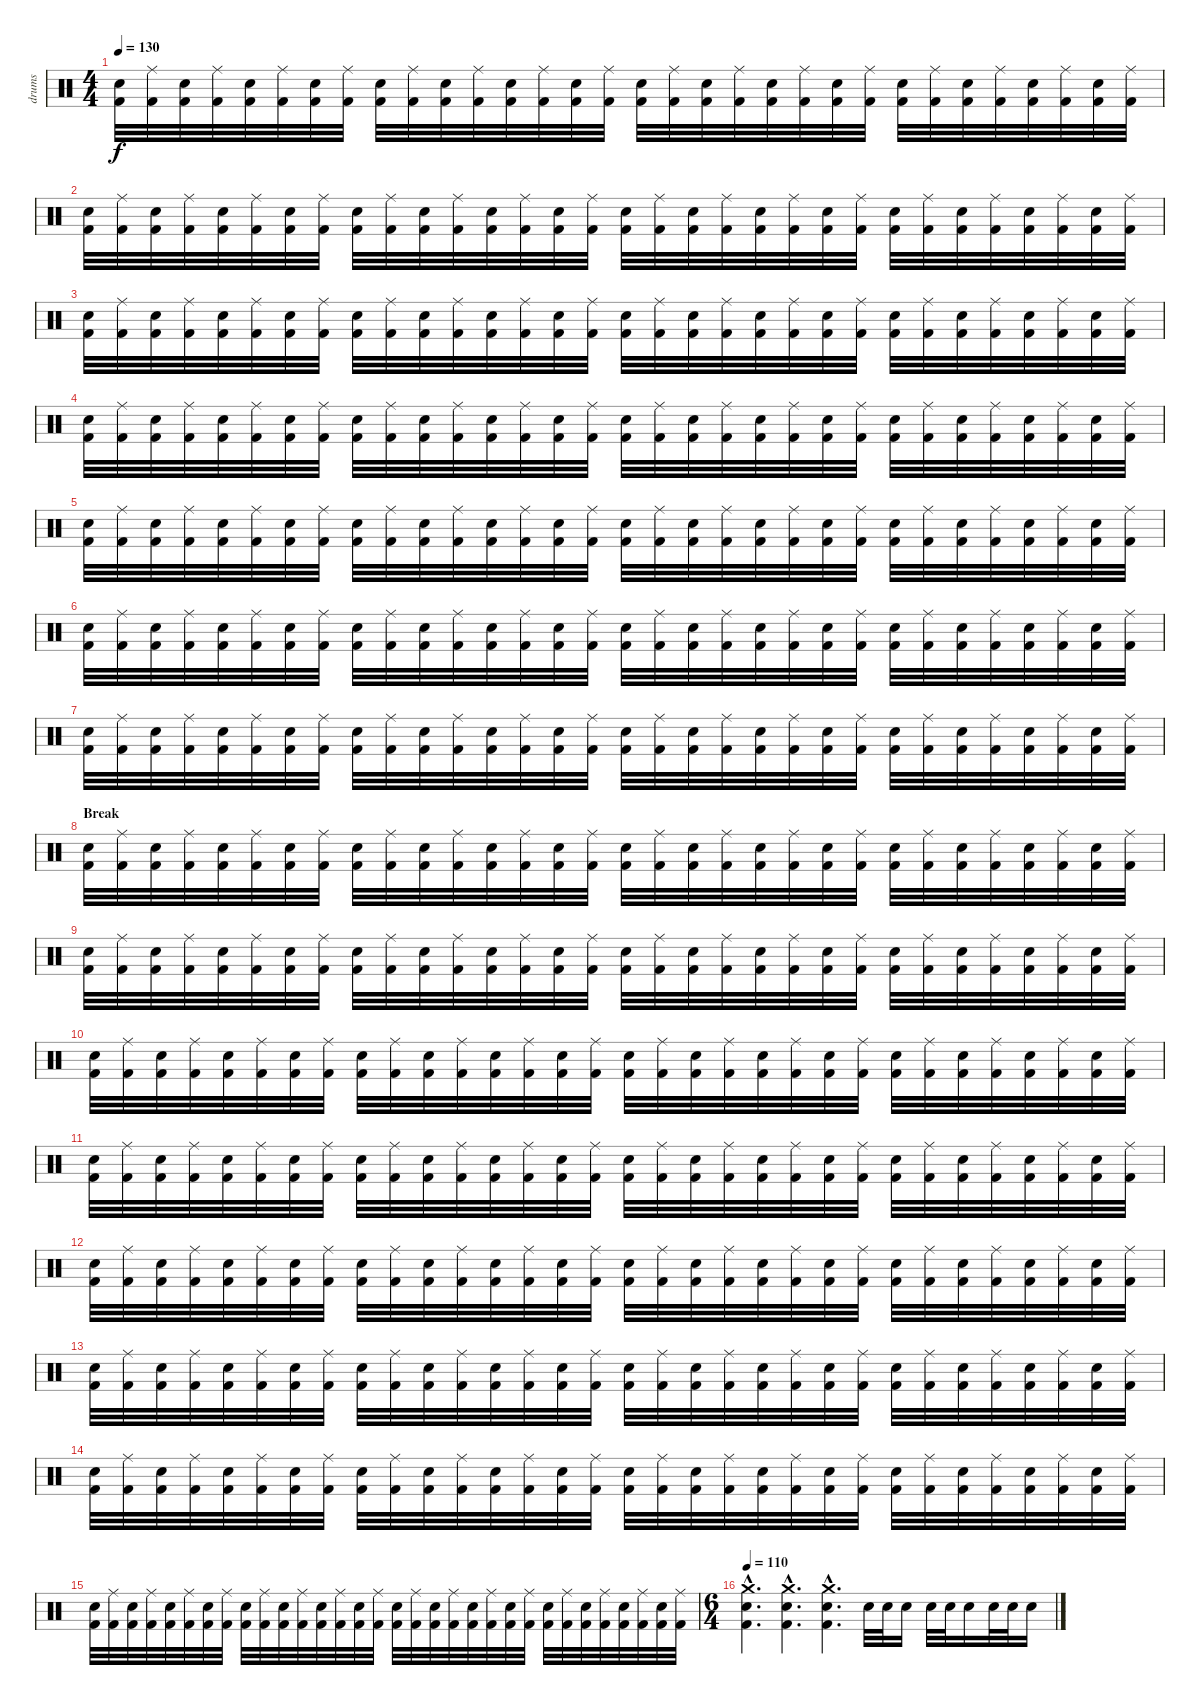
\track ("drums" "drums") {instrument percussion}
\staff {score}
\articulation defaults
\ts (4 4)
\tempo 130
\clef neutral
\ks c
("Electric Snare (hit)" "Kick (hit) 2").32{dy f} ("Ride (middle)" "Kick (hit) 2").32 ("Electric Snare (hit)" "Kick (hit) 2").32 ("Ride (middle)" "Kick (hit) 2").32 ("Electric Snare (hit)" "Kick (hit) 2").32 ("Ride (middle)" "Kick (hit) 2").32 ("Electric Snare (hit)" "Kick (hit) 2").32 ("Ride (middle)" "Kick (hit) 2").32 ("Electric Snare (hit)" "Kick (hit) 2").32 ("Ride (middle)" "Kick (hit) 2").32 ("Electric Snare (hit)" "Kick (hit) 2").32 ("Ride (middle)" "Kick (hit) 2").32 ("Electric Snare (hit)" "Kick (hit) 2").32 ("Ride (middle)" "Kick (hit) 2").32 ("Electric Snare (hit)" "Kick (hit) 2").32 ("Ride (middle)" "Kick (hit) 2").32 ("Electric Snare (hit)" "Kick (hit) 2").32 ("Ride (middle)" "Kick (hit) 2").32 ("Electric Snare (hit)" "Kick (hit) 2").32 ("Ride (middle)" "Kick (hit) 2").32 ("Electric Snare (hit)" "Kick (hit) 2").32 ("Ride (middle)" "Kick (hit) 2").32 ("Electric Snare (hit)" "Kick (hit) 2").32 ("Ride (middle)" "Kick (hit) 2").32 ("Electric Snare (hit)" "Kick (hit) 2").32 ("Ride (middle)" "Kick (hit) 2").32 ("Electric Snare (hit)" "Kick (hit) 2").32 ("Ride (middle)" "Kick (hit) 2").32 ("Electric Snare (hit)" "Kick (hit) 2").32 ("Ride (middle)" "Kick (hit) 2").32 ("Electric Snare (hit)" "Kick (hit) 2").32 ("Ride (middle)" "Kick (hit) 2").32 |
("Electric Snare (hit)" "Kick (hit) 2").32 ("Ride (middle)" "Kick (hit) 2").32 ("Electric Snare (hit)" "Kick (hit) 2").32 ("Ride (middle)" "Kick (hit) 2").32 ("Electric Snare (hit)" "Kick (hit) 2").32 ("Ride (middle)" "Kick (hit) 2").32 ("Electric Snare (hit)" "Kick (hit) 2").32 ("Ride (middle)" "Kick (hit) 2").32 ("Electric Snare (hit)" "Kick (hit) 2").32 ("Ride (middle)" "Kick (hit) 2").32 ("Electric Snare (hit)" "Kick (hit) 2").32 ("Ride (middle)" "Kick (hit) 2").32 ("Electric Snare (hit)" "Kick (hit) 2").32 ("Ride (middle)" "Kick (hit) 2").32 ("Electric Snare (hit)" "Kick (hit) 2").32 ("Ride (middle)" "Kick (hit) 2").32 ("Electric Snare (hit)" "Kick (hit) 2").32 ("Ride (middle)" "Kick (hit) 2").32 ("Electric Snare (hit)" "Kick (hit) 2").32 ("Ride (middle)" "Kick (hit) 2").32 ("Electric Snare (hit)" "Kick (hit) 2").32 ("Ride (middle)" "Kick (hit) 2").32 ("Electric Snare (hit)" "Kick (hit) 2").32 ("Ride (middle)" "Kick (hit) 2").32 ("Electric Snare (hit)" "Kick (hit) 2").32 ("Ride (middle)" "Kick (hit) 2").32 ("Electric Snare (hit)" "Kick (hit) 2").32 ("Ride (middle)" "Kick (hit) 2").32 ("Electric Snare (hit)" "Kick (hit) 2").32 ("Ride (middle)" "Kick (hit) 2").32 ("Electric Snare (hit)" "Kick (hit) 2").32 ("Ride (middle)" "Kick (hit) 2").32 |
("Electric Snare (hit)" "Kick (hit) 2").32 ("Ride (middle)" "Kick (hit) 2").32 ("Electric Snare (hit)" "Kick (hit) 2").32 ("Ride (middle)" "Kick (hit) 2").32 ("Electric Snare (hit)" "Kick (hit) 2").32 ("Ride (middle)" "Kick (hit) 2").32 ("Electric Snare (hit)" "Kick (hit) 2").32 ("Ride (middle)" "Kick (hit) 2").32 ("Electric Snare (hit)" "Kick (hit) 2").32 ("Ride (middle)" "Kick (hit) 2").32 ("Electric Snare (hit)" "Kick (hit) 2").32 ("Ride (middle)" "Kick (hit) 2").32 ("Electric Snare (hit)" "Kick (hit) 2").32 ("Ride (middle)" "Kick (hit) 2").32 ("Electric Snare (hit)" "Kick (hit) 2").32 ("Ride (middle)" "Kick (hit) 2").32 ("Electric Snare (hit)" "Kick (hit) 2").32 ("Ride (middle)" "Kick (hit) 2").32 ("Electric Snare (hit)" "Kick (hit) 2").32 ("Ride (middle)" "Kick (hit) 2").32 ("Electric Snare (hit)" "Kick (hit) 2").32 ("Ride (middle)" "Kick (hit) 2").32 ("Electric Snare (hit)" "Kick (hit) 2").32 ("Ride (middle)" "Kick (hit) 2").32 ("Electric Snare (hit)" "Kick (hit) 2").32 ("Ride (middle)" "Kick (hit) 2").32 ("Electric Snare (hit)" "Kick (hit) 2").32 ("Ride (middle)" "Kick (hit) 2").32 ("Electric Snare (hit)" "Kick (hit) 2").32 ("Ride (middle)" "Kick (hit) 2").32 ("Electric Snare (hit)" "Kick (hit) 2").32 ("Ride (middle)" "Kick (hit) 2").32 |
("Electric Snare (hit)" "Kick (hit) 2").32 ("Ride (middle)" "Kick (hit) 2").32 ("Electric Snare (hit)" "Kick (hit) 2").32 ("Ride (middle)" "Kick (hit) 2").32 ("Electric Snare (hit)" "Kick (hit) 2").32 ("Ride (middle)" "Kick (hit) 2").32 ("Electric Snare (hit)" "Kick (hit) 2").32 ("Ride (middle)" "Kick (hit) 2").32 ("Electric Snare (hit)" "Kick (hit) 2").32 ("Ride (middle)" "Kick (hit) 2").32 ("Electric Snare (hit)" "Kick (hit) 2").32 ("Ride (middle)" "Kick (hit) 2").32 ("Electric Snare (hit)" "Kick (hit) 2").32 ("Ride (middle)" "Kick (hit) 2").32 ("Electric Snare (hit)" "Kick (hit) 2").32 ("Ride (middle)" "Kick (hit) 2").32 ("Electric Snare (hit)" "Kick (hit) 2").32 ("Ride (middle)" "Kick (hit) 2").32 ("Electric Snare (hit)" "Kick (hit) 2").32 ("Ride (middle)" "Kick (hit) 2").32 ("Electric Snare (hit)" "Kick (hit) 2").32 ("Ride (middle)" "Kick (hit) 2").32 ("Electric Snare (hit)" "Kick (hit) 2").32 ("Ride (middle)" "Kick (hit) 2").32 ("Electric Snare (hit)" "Kick (hit) 2").32 ("Ride (middle)" "Kick (hit) 2").32 ("Electric Snare (hit)" "Kick (hit) 2").32 ("Ride (middle)" "Kick (hit) 2").32 ("Electric Snare (hit)" "Kick (hit) 2").32 ("Ride (middle)" "Kick (hit) 2").32 ("Electric Snare (hit)" "Kick (hit) 2").32 ("Ride (middle)" "Kick (hit) 2").32 |
("Electric Snare (hit)" "Kick (hit) 2").32 ("Ride (middle)" "Kick (hit) 2").32 ("Electric Snare (hit)" "Kick (hit) 2").32 ("Ride (middle)" "Kick (hit) 2").32 ("Electric Snare (hit)" "Kick (hit) 2").32 ("Ride (middle)" "Kick (hit) 2").32 ("Electric Snare (hit)" "Kick (hit) 2").32 ("Ride (middle)" "Kick (hit) 2").32 ("Electric Snare (hit)" "Kick (hit) 2").32 ("Ride (middle)" "Kick (hit) 2").32 ("Electric Snare (hit)" "Kick (hit) 2").32 ("Ride (middle)" "Kick (hit) 2").32 ("Electric Snare (hit)" "Kick (hit) 2").32 ("Ride (middle)" "Kick (hit) 2").32 ("Electric Snare (hit)" "Kick (hit) 2").32 ("Ride (middle)" "Kick (hit) 2").32 ("Electric Snare (hit)" "Kick (hit) 2").32 ("Ride (middle)" "Kick (hit) 2").32 ("Electric Snare (hit)" "Kick (hit) 2").32 ("Ride (middle)" "Kick (hit) 2").32 ("Electric Snare (hit)" "Kick (hit) 2").32 ("Ride (middle)" "Kick (hit) 2").32 ("Electric Snare (hit)" "Kick (hit) 2").32 ("Ride (middle)" "Kick (hit) 2").32 ("Electric Snare (hit)" "Kick (hit) 2").32 ("Ride (middle)" "Kick (hit) 2").32 ("Electric Snare (hit)" "Kick (hit) 2").32 ("Ride (middle)" "Kick (hit) 2").32 ("Electric Snare (hit)" "Kick (hit) 2").32 ("Ride (middle)" "Kick (hit) 2").32 ("Electric Snare (hit)" "Kick (hit) 2").32 ("Ride (middle)" "Kick (hit) 2").32 |
("Electric Snare (hit)" "Kick (hit) 2").32 ("Ride (middle)" "Kick (hit) 2").32 ("Electric Snare (hit)" "Kick (hit) 2").32 ("Ride (middle)" "Kick (hit) 2").32 ("Electric Snare (hit)" "Kick (hit) 2").32 ("Ride (middle)" "Kick (hit) 2").32 ("Electric Snare (hit)" "Kick (hit) 2").32 ("Ride (middle)" "Kick (hit) 2").32 ("Electric Snare (hit)" "Kick (hit) 2").32 ("Ride (middle)" "Kick (hit) 2").32 ("Electric Snare (hit)" "Kick (hit) 2").32 ("Ride (middle)" "Kick (hit) 2").32 ("Electric Snare (hit)" "Kick (hit) 2").32 ("Ride (middle)" "Kick (hit) 2").32 ("Electric Snare (hit)" "Kick (hit) 2").32 ("Ride (middle)" "Kick (hit) 2").32 ("Electric Snare (hit)" "Kick (hit) 2").32 ("Ride (middle)" "Kick (hit) 2").32 ("Electric Snare (hit)" "Kick (hit) 2").32 ("Ride (middle)" "Kick (hit) 2").32 ("Electric Snare (hit)" "Kick (hit) 2").32 ("Ride (middle)" "Kick (hit) 2").32 ("Electric Snare (hit)" "Kick (hit) 2").32 ("Ride (middle)" "Kick (hit) 2").32 ("Electric Snare (hit)" "Kick (hit) 2").32 ("Ride (middle)" "Kick (hit) 2").32 ("Electric Snare (hit)" "Kick (hit) 2").32 ("Ride (middle)" "Kick (hit) 2").32 ("Electric Snare (hit)" "Kick (hit) 2").32 ("Ride (middle)" "Kick (hit) 2").32 ("Electric Snare (hit)" "Kick (hit) 2").32 ("Ride (middle)" "Kick (hit) 2").32 |
("Electric Snare (hit)" "Kick (hit) 2").32 ("Ride (middle)" "Kick (hit) 2").32 ("Electric Snare (hit)" "Kick (hit) 2").32 ("Ride (middle)" "Kick (hit) 2").32 ("Electric Snare (hit)" "Kick (hit) 2").32 ("Ride (middle)" "Kick (hit) 2").32 ("Electric Snare (hit)" "Kick (hit) 2").32 ("Ride (middle)" "Kick (hit) 2").32 ("Electric Snare (hit)" "Kick (hit) 2").32 ("Ride (middle)" "Kick (hit) 2").32 ("Electric Snare (hit)" "Kick (hit) 2").32 ("Ride (middle)" "Kick (hit) 2").32 ("Electric Snare (hit)" "Kick (hit) 2").32 ("Ride (middle)" "Kick (hit) 2").32 ("Electric Snare (hit)" "Kick (hit) 2").32 ("Ride (middle)" "Kick (hit) 2").32 ("Electric Snare (hit)" "Kick (hit) 2").32 ("Ride (middle)" "Kick (hit) 2").32 ("Electric Snare (hit)" "Kick (hit) 2").32 ("Ride (middle)" "Kick (hit) 2").32 ("Electric Snare (hit)" "Kick (hit) 2").32 ("Ride (middle)" "Kick (hit) 2").32 ("Electric Snare (hit)" "Kick (hit) 2").32 ("Ride (middle)" "Kick (hit) 2").32 ("Electric Snare (hit)" "Kick (hit) 2").32 ("Ride (middle)" "Kick (hit) 2").32 ("Electric Snare (hit)" "Kick (hit) 2").32 ("Ride (middle)" "Kick (hit) 2").32 ("Electric Snare (hit)" "Kick (hit) 2").32 ("Ride (middle)" "Kick (hit) 2").32 ("Electric Snare (hit)" "Kick (hit) 2").32 ("Ride (middle)" "Kick (hit) 2").32 |
\section ("" "Break")
("Electric Snare (hit)" "Kick (hit) 2").32 ("Ride (middle)" "Kick (hit) 2").32 ("Electric Snare (hit)" "Kick (hit) 2").32 ("Ride (middle)" "Kick (hit) 2").32 ("Electric Snare (hit)" "Kick (hit) 2").32 ("Ride (middle)" "Kick (hit) 2").32 ("Electric Snare (hit)" "Kick (hit) 2").32 ("Ride (middle)" "Kick (hit) 2").32 ("Electric Snare (hit)" "Kick (hit) 2").32 ("Ride (middle)" "Kick (hit) 2").32 ("Electric Snare (hit)" "Kick (hit) 2").32 ("Ride (middle)" "Kick (hit) 2").32 ("Electric Snare (hit)" "Kick (hit) 2").32 ("Ride (middle)" "Kick (hit) 2").32 ("Electric Snare (hit)" "Kick (hit) 2").32 ("Ride (middle)" "Kick (hit) 2").32 ("Electric Snare (hit)" "Kick (hit) 2").32 ("Ride (middle)" "Kick (hit) 2").32 ("Electric Snare (hit)" "Kick (hit) 2").32 ("Ride (middle)" "Kick (hit) 2").32 ("Electric Snare (hit)" "Kick (hit) 2").32 ("Ride (middle)" "Kick (hit) 2").32 ("Electric Snare (hit)" "Kick (hit) 2").32 ("Ride (middle)" "Kick (hit) 2").32 ("Electric Snare (hit)" "Kick (hit) 2").32 ("Ride (middle)" "Kick (hit) 2").32 ("Electric Snare (hit)" "Kick (hit) 2").32 ("Ride (middle)" "Kick (hit) 2").32 ("Electric Snare (hit)" "Kick (hit) 2").32 ("Ride (middle)" "Kick (hit) 2").32 ("Electric Snare (hit)" "Kick (hit) 2").32 ("Ride (middle)" "Kick (hit) 2").32 |
("Electric Snare (hit)" "Kick (hit) 2").32 ("Ride (middle)" "Kick (hit) 2").32 ("Electric Snare (hit)" "Kick (hit) 2").32 ("Ride (middle)" "Kick (hit) 2").32 ("Electric Snare (hit)" "Kick (hit) 2").32 ("Ride (middle)" "Kick (hit) 2").32 ("Electric Snare (hit)" "Kick (hit) 2").32 ("Ride (middle)" "Kick (hit) 2").32 ("Electric Snare (hit)" "Kick (hit) 2").32 ("Ride (middle)" "Kick (hit) 2").32 ("Electric Snare (hit)" "Kick (hit) 2").32 ("Ride (middle)" "Kick (hit) 2").32 ("Electric Snare (hit)" "Kick (hit) 2").32 ("Ride (middle)" "Kick (hit) 2").32 ("Electric Snare (hit)" "Kick (hit) 2").32 ("Ride (middle)" "Kick (hit) 2").32 ("Electric Snare (hit)" "Kick (hit) 2").32 ("Ride (middle)" "Kick (hit) 2").32 ("Electric Snare (hit)" "Kick (hit) 2").32 ("Ride (middle)" "Kick (hit) 2").32 ("Electric Snare (hit)" "Kick (hit) 2").32 ("Ride (middle)" "Kick (hit) 2").32 ("Electric Snare (hit)" "Kick (hit) 2").32 ("Ride (middle)" "Kick (hit) 2").32 ("Electric Snare (hit)" "Kick (hit) 2").32 ("Ride (middle)" "Kick (hit) 2").32 ("Electric Snare (hit)" "Kick (hit) 2").32 ("Ride (middle)" "Kick (hit) 2").32 ("Electric Snare (hit)" "Kick (hit) 2").32 ("Ride (middle)" "Kick (hit) 2").32 ("Electric Snare (hit)" "Kick (hit) 2").32 ("Ride (middle)" "Kick (hit) 2").32 |
("Electric Snare (hit)" "Kick (hit) 2").32 ("Ride (middle)" "Kick (hit) 2").32 ("Electric Snare (hit)" "Kick (hit) 2").32 ("Ride (middle)" "Kick (hit) 2").32 ("Electric Snare (hit)" "Kick (hit) 2").32 ("Ride (middle)" "Kick (hit) 2").32 ("Electric Snare (hit)" "Kick (hit) 2").32 ("Ride (middle)" "Kick (hit) 2").32 ("Electric Snare (hit)" "Kick (hit) 2").32 ("Ride (middle)" "Kick (hit) 2").32 ("Electric Snare (hit)" "Kick (hit) 2").32 ("Ride (middle)" "Kick (hit) 2").32 ("Electric Snare (hit)" "Kick (hit) 2").32 ("Ride (middle)" "Kick (hit) 2").32 ("Electric Snare (hit)" "Kick (hit) 2").32 ("Ride (middle)" "Kick (hit) 2").32 ("Electric Snare (hit)" "Kick (hit) 2").32 ("Ride (middle)" "Kick (hit) 2").32 ("Electric Snare (hit)" "Kick (hit) 2").32 ("Ride (middle)" "Kick (hit) 2").32 ("Electric Snare (hit)" "Kick (hit) 2").32 ("Ride (middle)" "Kick (hit) 2").32 ("Electric Snare (hit)" "Kick (hit) 2").32 ("Ride (middle)" "Kick (hit) 2").32 ("Electric Snare (hit)" "Kick (hit) 2").32 ("Ride (middle)" "Kick (hit) 2").32 ("Electric Snare (hit)" "Kick (hit) 2").32 ("Ride (middle)" "Kick (hit) 2").32 ("Electric Snare (hit)" "Kick (hit) 2").32 ("Ride (middle)" "Kick (hit) 2").32 ("Electric Snare (hit)" "Kick (hit) 2").32 ("Ride (middle)" "Kick (hit) 2").32 |
("Electric Snare (hit)" "Kick (hit) 2").32 ("Ride (middle)" "Kick (hit) 2").32 ("Electric Snare (hit)" "Kick (hit) 2").32 ("Ride (middle)" "Kick (hit) 2").32 ("Electric Snare (hit)" "Kick (hit) 2").32 ("Ride (middle)" "Kick (hit) 2").32 ("Electric Snare (hit)" "Kick (hit) 2").32 ("Ride (middle)" "Kick (hit) 2").32 ("Electric Snare (hit)" "Kick (hit) 2").32 ("Ride (middle)" "Kick (hit) 2").32 ("Electric Snare (hit)" "Kick (hit) 2").32 ("Ride (middle)" "Kick (hit) 2").32 ("Electric Snare (hit)" "Kick (hit) 2").32 ("Ride (middle)" "Kick (hit) 2").32 ("Electric Snare (hit)" "Kick (hit) 2").32 ("Ride (middle)" "Kick (hit) 2").32 ("Electric Snare (hit)" "Kick (hit) 2").32 ("Ride (middle)" "Kick (hit) 2").32 ("Electric Snare (hit)" "Kick (hit) 2").32 ("Ride (middle)" "Kick (hit) 2").32 ("Electric Snare (hit)" "Kick (hit) 2").32 ("Ride (middle)" "Kick (hit) 2").32 ("Electric Snare (hit)" "Kick (hit) 2").32 ("Ride (middle)" "Kick (hit) 2").32 ("Electric Snare (hit)" "Kick (hit) 2").32 ("Ride (middle)" "Kick (hit) 2").32 ("Electric Snare (hit)" "Kick (hit) 2").32 ("Ride (middle)" "Kick (hit) 2").32 ("Electric Snare (hit)" "Kick (hit) 2").32 ("Ride (middle)" "Kick (hit) 2").32 ("Electric Snare (hit)" "Kick (hit) 2").32 ("Ride (middle)" "Kick (hit) 2").32 |
("Electric Snare (hit)" "Kick (hit) 2").32 ("Ride (middle)" "Kick (hit) 2").32 ("Electric Snare (hit)" "Kick (hit) 2").32 ("Ride (middle)" "Kick (hit) 2").32 ("Electric Snare (hit)" "Kick (hit) 2").32 ("Ride (middle)" "Kick (hit) 2").32 ("Electric Snare (hit)" "Kick (hit) 2").32 ("Ride (middle)" "Kick (hit) 2").32 ("Electric Snare (hit)" "Kick (hit) 2").32 ("Ride (middle)" "Kick (hit) 2").32 ("Electric Snare (hit)" "Kick (hit) 2").32 ("Ride (middle)" "Kick (hit) 2").32 ("Electric Snare (hit)" "Kick (hit) 2").32 ("Ride (middle)" "Kick (hit) 2").32 ("Electric Snare (hit)" "Kick (hit) 2").32 ("Ride (middle)" "Kick (hit) 2").32 ("Electric Snare (hit)" "Kick (hit) 2").32 ("Ride (middle)" "Kick (hit) 2").32 ("Electric Snare (hit)" "Kick (hit) 2").32 ("Ride (middle)" "Kick (hit) 2").32 ("Electric Snare (hit)" "Kick (hit) 2").32 ("Ride (middle)" "Kick (hit) 2").32 ("Electric Snare (hit)" "Kick (hit) 2").32 ("Ride (middle)" "Kick (hit) 2").32 ("Electric Snare (hit)" "Kick (hit) 2").32 ("Ride (middle)" "Kick (hit) 2").32 ("Electric Snare (hit)" "Kick (hit) 2").32 ("Ride (middle)" "Kick (hit) 2").32 ("Electric Snare (hit)" "Kick (hit) 2").32 ("Ride (middle)" "Kick (hit) 2").32 ("Electric Snare (hit)" "Kick (hit) 2").32 ("Ride (middle)" "Kick (hit) 2").32 |
("Electric Snare (hit)" "Kick (hit) 2").32 ("Ride (middle)" "Kick (hit) 2").32 ("Electric Snare (hit)" "Kick (hit) 2").32 ("Ride (middle)" "Kick (hit) 2").32 ("Electric Snare (hit)" "Kick (hit) 2").32 ("Ride (middle)" "Kick (hit) 2").32 ("Electric Snare (hit)" "Kick (hit) 2").32 ("Ride (middle)" "Kick (hit) 2").32 ("Electric Snare (hit)" "Kick (hit) 2").32 ("Ride (middle)" "Kick (hit) 2").32 ("Electric Snare (hit)" "Kick (hit) 2").32 ("Ride (middle)" "Kick (hit) 2").32 ("Electric Snare (hit)" "Kick (hit) 2").32 ("Ride (middle)" "Kick (hit) 2").32 ("Electric Snare (hit)" "Kick (hit) 2").32 ("Ride (middle)" "Kick (hit) 2").32 ("Electric Snare (hit)" "Kick (hit) 2").32 ("Ride (middle)" "Kick (hit) 2").32 ("Electric Snare (hit)" "Kick (hit) 2").32 ("Ride (middle)" "Kick (hit) 2").32 ("Electric Snare (hit)" "Kick (hit) 2").32 ("Ride (middle)" "Kick (hit) 2").32 ("Electric Snare (hit)" "Kick (hit) 2").32 ("Ride (middle)" "Kick (hit) 2").32 ("Electric Snare (hit)" "Kick (hit) 2").32 ("Ride (middle)" "Kick (hit) 2").32 ("Electric Snare (hit)" "Kick (hit) 2").32 ("Ride (middle)" "Kick (hit) 2").32 ("Electric Snare (hit)" "Kick (hit) 2").32 ("Ride (middle)" "Kick (hit) 2").32 ("Electric Snare (hit)" "Kick (hit) 2").32 ("Ride (middle)" "Kick (hit) 2").32 |
("Electric Snare (hit)" "Kick (hit) 2").32 ("Ride (middle)" "Kick (hit) 2").32 ("Electric Snare (hit)" "Kick (hit) 2").32 ("Ride (middle)" "Kick (hit) 2").32 ("Electric Snare (hit)" "Kick (hit) 2").32 ("Ride (middle)" "Kick (hit) 2").32 ("Electric Snare (hit)" "Kick (hit) 2").32 ("Ride (middle)" "Kick (hit) 2").32 ("Electric Snare (hit)" "Kick (hit) 2").32 ("Ride (middle)" "Kick (hit) 2").32 ("Electric Snare (hit)" "Kick (hit) 2").32 ("Ride (middle)" "Kick (hit) 2").32 ("Electric Snare (hit)" "Kick (hit) 2").32 ("Ride (middle)" "Kick (hit) 2").32 ("Electric Snare (hit)" "Kick (hit) 2").32 ("Ride (middle)" "Kick (hit) 2").32 ("Electric Snare (hit)" "Kick (hit) 2").32 ("Ride (middle)" "Kick (hit) 2").32 ("Electric Snare (hit)" "Kick (hit) 2").32 ("Ride (middle)" "Kick (hit) 2").32 ("Electric Snare (hit)" "Kick (hit) 2").32 ("Ride (middle)" "Kick (hit) 2").32 ("Electric Snare (hit)" "Kick (hit) 2").32 ("Ride (middle)" "Kick (hit) 2").32 ("Electric Snare (hit)" "Kick (hit) 2").32 ("Ride (middle)" "Kick (hit) 2").32 ("Electric Snare (hit)" "Kick (hit) 2").32 ("Ride (middle)" "Kick (hit) 2").32 ("Electric Snare (hit)" "Kick (hit) 2").32 ("Ride (middle)" "Kick (hit) 2").32 ("Electric Snare (hit)" "Kick (hit) 2").32 ("Ride (middle)" "Kick (hit) 2").32 |
("Electric Snare (hit)" "Kick (hit) 2").32 ("Ride (middle)" "Kick (hit) 2").32 ("Electric Snare (hit)" "Kick (hit) 2").32 ("Ride (middle)" "Kick (hit) 2").32 ("Electric Snare (hit)" "Kick (hit) 2").32 ("Ride (middle)" "Kick (hit) 2").32 ("Electric Snare (hit)" "Kick (hit) 2").32 ("Ride (middle)" "Kick (hit) 2").32 ("Electric Snare (hit)" "Kick (hit) 2").32 ("Ride (middle)" "Kick (hit) 2").32 ("Electric Snare (hit)" "Kick (hit) 2").32 ("Ride (middle)" "Kick (hit) 2").32 ("Electric Snare (hit)" "Kick (hit) 2").32 ("Ride (middle)" "Kick (hit) 2").32 ("Electric Snare (hit)" "Kick (hit) 2").32 ("Ride (middle)" "Kick (hit) 2").32 ("Electric Snare (hit)" "Kick (hit) 2").32 ("Ride (middle)" "Kick (hit) 2").32 ("Electric Snare (hit)" "Kick (hit) 2").32 ("Ride (middle)" "Kick (hit) 2").32 ("Electric Snare (hit)" "Kick (hit) 2").32 ("Ride (middle)" "Kick (hit) 2").32 ("Electric Snare (hit)" "Kick (hit) 2").32 ("Ride (middle)" "Kick (hit) 2").32 ("Electric Snare (hit)" "Kick (hit) 2").32 ("Ride (middle)" "Kick (hit) 2").32 ("Electric Snare (hit)" "Kick (hit) 2").32 ("Ride (middle)" "Kick (hit) 2").32 ("Electric Snare (hit)" "Kick (hit) 2").32 ("Ride (middle)" "Kick (hit) 2").32 ("Electric Snare (hit)" "Kick (hit) 2").32 ("Ride (middle)" "Kick (hit) 2").32 |
\ts (6 4)
\tempo 110
("Crash medium (hit)"{hac} "Electric Snare (hit)"{hac} "Kick (hit) 2"{hac}).4{d} ("Crash medium (hit)"{hac} "Electric Snare (hit)"{hac} "Kick (hit) 2"{hac}).4{d} ("Crash medium (hit)"{hac} "Electric Snare (hit)"{hac} "Kick (hit) 2"{hac}).4{d} "Electric Snare (hit)".32 "Electric Snare (hit)".32 "Electric Snare (hit)".16 "Electric Snare (hit)".32 "Electric Snare (hit)".32 "Electric Snare (hit)".16 "Electric Snare (hit)".32 "Electric Snare (hit)".32 "Electric Snare (hit)".16
